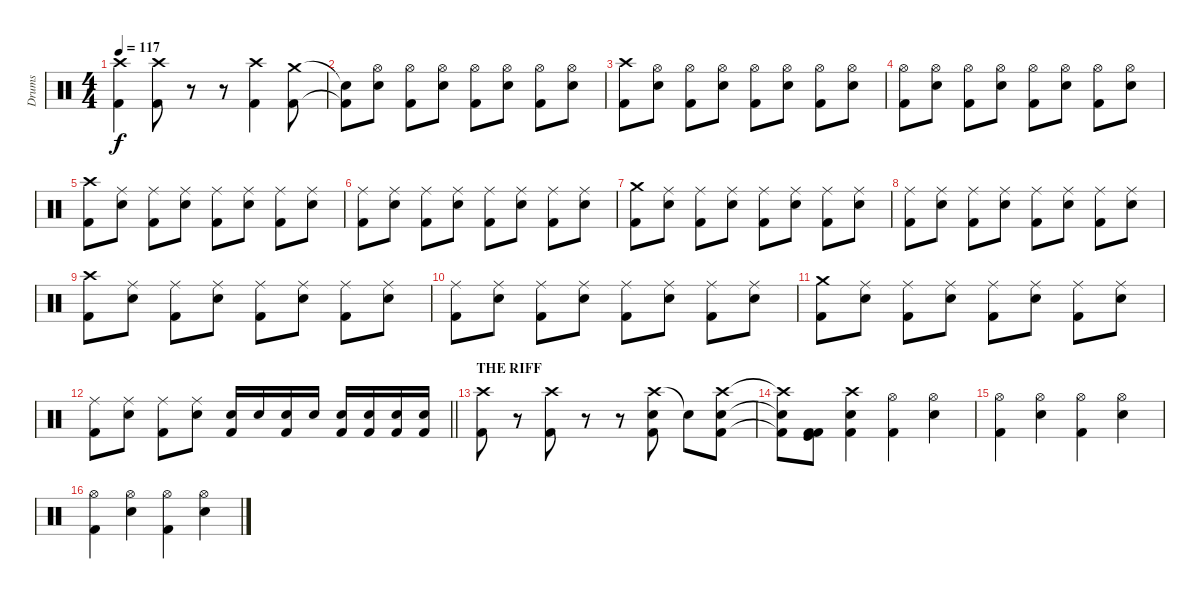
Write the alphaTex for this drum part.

\track ("Drums" "Drums") {instrument percussion}
\staff {score}
\articulation defaults
\ts (4 4)
\tempo 117
\clef neutral
\ks c
("Crash high (hit)" "Kick (hit) 2").4{dy f} ("Crash high (hit)" "Kick (hit) 2").8 r.8 r.8 ("Crash high (hit)" "Kick (hit) 2").4 ("Crash medium (hit)" "Kick (hit) 2").8 |
("Snare (hit)"{t} "Kick (hit) 2"{t}).8 ("Hi-Hat (open)" "Electric Snare (hit)").8 ("Hi-Hat (open)" "Kick (hit) 2").8 ("Hi-Hat (open)" "Electric Snare (hit)").8 ("Hi-Hat (open)" "Kick (hit) 2").8 ("Hi-Hat (open)" "Electric Snare (hit)").8 ("Hi-Hat (open)" "Kick (hit) 2").8 ("Hi-Hat (open)" "Electric Snare (hit)").8 |
("Crash high (hit)" "Kick (hit) 2").8 ("Hi-Hat (open)" "Electric Snare (hit)").8 ("Hi-Hat (open)" "Kick (hit) 2").8 ("Hi-Hat (open)" "Electric Snare (hit)").8 ("Hi-Hat (open)" "Kick (hit) 2").8 ("Hi-Hat (open)" "Electric Snare (hit)").8 ("Hi-Hat (open)" "Kick (hit) 2").8 ("Hi-Hat (open)" "Electric Snare (hit)").8 |
("Hi-Hat (open)" "Kick (hit) 2").8 ("Hi-Hat (open)" "Electric Snare (hit)").8 ("Hi-Hat (open)" "Kick (hit) 2").8 ("Hi-Hat (open)" "Electric Snare (hit)").8 ("Hi-Hat (open)" "Kick (hit) 2").8 ("Hi-Hat (open)" "Electric Snare (hit)").8 ("Hi-Hat (open)" "Kick (hit) 2").8 ("Hi-Hat (open)" "Electric Snare (hit)").8 |
("Crash high (hit)" "Kick (hit) 2").8 ("Ride (middle)" "Electric Snare (hit)").8 ("Ride (middle)" "Kick (hit) 2").8 ("Ride (middle)" "Electric Snare (hit)").8 ("Ride (middle)" "Kick (hit) 2").8 ("Ride (middle)" "Electric Snare (hit)").8 ("Ride (middle)" "Kick (hit) 2").8 ("Ride (middle)" "Electric Snare (hit)").8 |
("Ride (middle)" "Kick (hit) 2").8 ("Ride (middle)" "Electric Snare (hit)").8 ("Ride (middle)" "Kick (hit) 2").8 ("Ride (middle)" "Electric Snare (hit)").8 ("Ride (middle)" "Kick (hit) 2").8 ("Ride (middle)" "Electric Snare (hit)").8 ("Ride (middle)" "Kick (hit) 2").8 ("Ride (middle)" "Electric Snare (hit)").8 |
("Crash medium (hit)" "Kick (hit) 2").8 ("Ride (middle)" "Electric Snare (hit)").8 ("Ride (middle)" "Kick (hit) 2").8 ("Ride (middle)" "Electric Snare (hit)").8 ("Ride (middle)" "Kick (hit) 2").8 ("Ride (middle)" "Electric Snare (hit)").8 ("Ride (middle)" "Kick (hit) 2").8 ("Ride (middle)" "Electric Snare (hit)").8 |
("Ride (middle)" "Kick (hit) 2").8 ("Ride (middle)" "Electric Snare (hit)").8 ("Ride (middle)" "Kick (hit) 2").8 ("Ride (middle)" "Electric Snare (hit)").8 ("Ride (middle)" "Kick (hit) 2").8 ("Ride (middle)" "Electric Snare (hit)").8 ("Ride (middle)" "Kick (hit) 2").8 ("Ride (middle)" "Electric Snare (hit)").8 |
("Crash high (hit)" "Kick (hit) 2").8 ("Ride (middle)" "Electric Snare (hit)").8 ("Ride (middle)" "Kick (hit) 2").8 ("Ride (middle)" "Electric Snare (hit)").8 ("Ride (middle)" "Kick (hit) 2").8 ("Ride (middle)" "Electric Snare (hit)").8 ("Ride (middle)" "Kick (hit) 2").8 ("Ride (middle)" "Electric Snare (hit)").8 |
("Ride (middle)" "Kick (hit) 2").8 ("Ride (middle)" "Electric Snare (hit)").8 ("Ride (middle)" "Kick (hit) 2").8 ("Ride (middle)" "Electric Snare (hit)").8 ("Ride (middle)" "Kick (hit) 2").8 ("Ride (middle)" "Electric Snare (hit)").8 ("Ride (middle)" "Kick (hit) 2").8 ("Ride (middle)" "Electric Snare (hit)").8 |
("Crash medium (hit)" "Kick (hit) 2").8 ("Ride (middle)" "Electric Snare (hit)").8 ("Ride (middle)" "Kick (hit) 2").8 ("Ride (middle)" "Electric Snare (hit)").8 ("Ride (middle)" "Kick (hit) 2").8 ("Ride (middle)" "Electric Snare (hit)").8 ("Ride (middle)" "Kick (hit) 2").8 ("Ride (middle)" "Electric Snare (hit)").8 |
\barLineRight lightlight
("Ride (middle)" "Kick (hit) 2").8 ("Ride (middle)" "Electric Snare (hit)").8 ("Ride (middle)" "Kick (hit) 2").8 ("Ride (middle)" "Electric Snare (hit)").8 ("Electric Snare (hit)" "Kick (hit) 2").16 "Electric Snare (hit)".16 ("Electric Snare (hit)" "Kick (hit) 2").16 "Electric Snare (hit)".16 ("Electric Snare (hit)" "Kick (hit) 2").16 ("Electric Snare (hit)" "Kick (hit) 2").16 ("Electric Snare (hit)" "Kick (hit) 2").16 ("Electric Snare (hit)" "Kick (hit) 2").16 |
\section ("" "THE RIFF")
("Crash high (hit)" "Kick (hit) 2").8 r.8 ("Crash high (hit)" "Kick (hit) 2").8 r.8 r.8 ("Crash high (hit)" "Electric Snare (hit)" "Kick (hit) 2").8 "Snare (hit)"{t}.8 ("Crash high (hit)" "Electric Snare (hit)" "Kick (hit) 2").8 |
("Crash high (hit)"{t} "Electric Snare (hit)"{t} "Kick (hit) 2"{t}).8 ("Kick (hit) 2" "Kick (hit)" "Kick (hit) 2").8 ("Crash high (hit)" "Electric Snare (hit)" "Kick (hit) 2").4 ("Hi-Hat (open)" "Kick (hit) 2").4 ("Hi-Hat (open)" "Electric Snare (hit)").4 |
("Hi-Hat (open)" "Kick (hit) 2").4 ("Hi-Hat (open)" "Electric Snare (hit)").4 ("Hi-Hat (open)" "Kick (hit) 2").4 ("Hi-Hat (open)" "Electric Snare (hit)").4 |
("Hi-Hat (open)" "Kick (hit) 2").4 ("Hi-Hat (open)" "Electric Snare (hit)").4 ("Hi-Hat (open)" "Kick (hit) 2").4 ("Hi-Hat (open)" "Electric Snare (hit)").4
